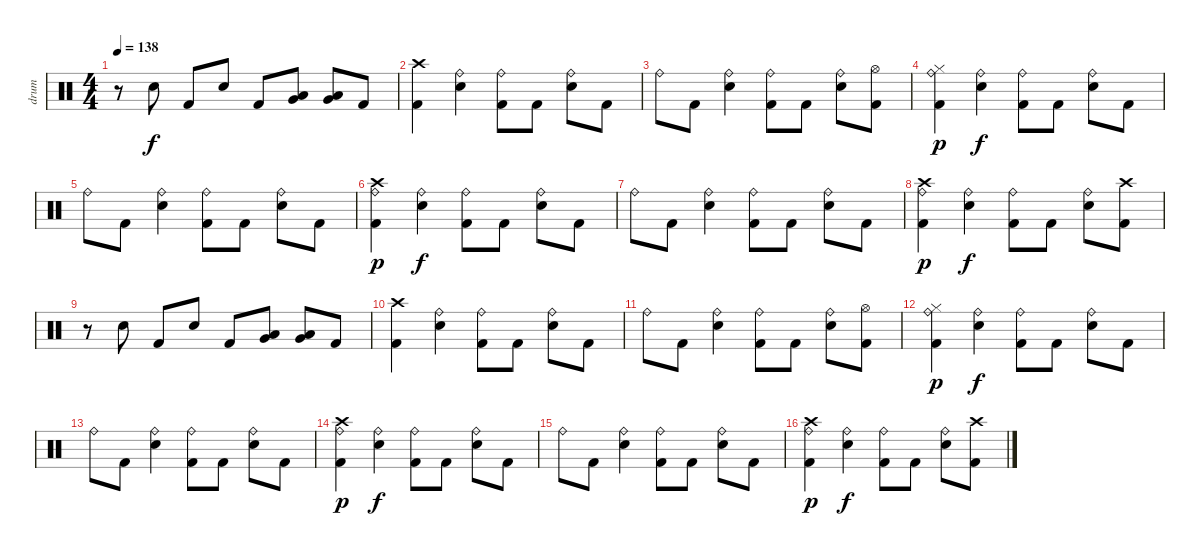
\track ("drum" "drum") {instrument percussion}
\staff {score}
\articulation defaults
\ts (4 4)
\tempo 138
\clef neutral
\ks c
r.8{dy f} "Snare (hit) 2".8 "Kick (hit) 2".8 "Snare (hit) 2".8 "Kick (hit) 2".8 ("Low Tom (hit)" "Very Low Tom (hit)").8 ("Low Tom (hit)" "Very Low Tom (hit)").8 "Kick (hit) 2".8 |
("Crash high (hit)" "Kick (hit) 2").4 ("Ride (bell)" "Snare (hit) 2").4 ("Ride (bell)" "Kick (hit) 2").8 "Kick (hit) 2".8 ("Ride (bell)" "Snare (hit) 2").8 "Kick (hit) 2".8 |
"Ride (bell)".8 "Kick (hit) 2".8 ("Ride (bell)" "Snare (hit) 2").4 ("Ride (bell)" "Kick (hit) 2").8 "Kick (hit) 2".8 ("Ride (bell)" "Snare (hit) 2").8 ("Hi-Hat (open)" "Kick (hit) 2").8 |
("Ride (bell)" "Hi-Hat (closed)" "Kick (hit) 2").4{dy p} ("Ride (bell)" "Snare (hit) 2").4{dy f} ("Ride (bell)" "Kick (hit) 2").8 "Kick (hit) 2".8 ("Ride (bell)" "Snare (hit) 2").8 "Kick (hit) 2".8 |
"Ride (bell)".8 "Kick (hit) 2".8 ("Ride (bell)" "Snare (hit) 2").4 ("Ride (bell)" "Kick (hit) 2").8 "Kick (hit) 2".8 ("Ride (bell)" "Snare (hit) 2").8 "Kick (hit) 2".8 |
("Crash high (hit)" "Ride (bell)" "Kick (hit) 2").4{dy p} ("Ride (bell)" "Snare (hit) 2").4{dy f} ("Ride (bell)" "Kick (hit) 2").8 "Kick (hit) 2".8 ("Ride (bell)" "Snare (hit) 2").8 "Kick (hit) 2".8 |
"Ride (bell)".8 "Kick (hit) 2".8 ("Ride (bell)" "Snare (hit) 2").4 ("Ride (bell)" "Kick (hit) 2").8 "Kick (hit) 2".8 ("Ride (bell)" "Snare (hit) 2").8 "Kick (hit) 2".8 |
("Crash high (hit)" "Ride (bell)" "Kick (hit) 2").4{dy p} ("Ride (bell)" "Snare (hit) 2").4{dy f} ("Ride (bell)" "Kick (hit) 2").8 "Kick (hit) 2".8 ("Ride (bell)" "Snare (hit) 2").8 ("Crash high (hit)" "Kick (hit) 2").8 |
r.8 "Snare (hit) 2".8 "Kick (hit) 2".8 "Snare (hit) 2".8 "Kick (hit) 2".8 ("Low Tom (hit)" "Very Low Tom (hit)").8 ("Low Tom (hit)" "Very Low Tom (hit)").8 "Kick (hit) 2".8 |
("Crash high (hit)" "Kick (hit) 2").4 ("Ride (bell)" "Snare (hit) 2").4 ("Ride (bell)" "Kick (hit) 2").8 "Kick (hit) 2".8 ("Ride (bell)" "Snare (hit) 2").8 "Kick (hit) 2".8 |
"Ride (bell)".8 "Kick (hit) 2".8 ("Ride (bell)" "Snare (hit) 2").4 ("Ride (bell)" "Kick (hit) 2").8 "Kick (hit) 2".8 ("Ride (bell)" "Snare (hit) 2").8 ("Hi-Hat (open)" "Kick (hit) 2").8 |
("Ride (bell)" "Hi-Hat (closed)" "Kick (hit) 2").4{dy p} ("Ride (bell)" "Snare (hit) 2").4{dy f} ("Ride (bell)" "Kick (hit) 2").8 "Kick (hit) 2".8 ("Ride (bell)" "Snare (hit) 2").8 "Kick (hit) 2".8 |
"Ride (bell)".8 "Kick (hit) 2".8 ("Ride (bell)" "Snare (hit) 2").4 ("Ride (bell)" "Kick (hit) 2").8 "Kick (hit) 2".8 ("Ride (bell)" "Snare (hit) 2").8 "Kick (hit) 2".8 |
("Crash high (hit)" "Ride (bell)" "Kick (hit) 2").4{dy p} ("Ride (bell)" "Snare (hit) 2").4{dy f} ("Ride (bell)" "Kick (hit) 2").8 "Kick (hit) 2".8 ("Ride (bell)" "Snare (hit) 2").8 "Kick (hit) 2".8 |
"Ride (bell)".8 "Kick (hit) 2".8 ("Ride (bell)" "Snare (hit) 2").4 ("Ride (bell)" "Kick (hit) 2").8 "Kick (hit) 2".8 ("Ride (bell)" "Snare (hit) 2").8 "Kick (hit) 2".8 |
("Crash high (hit)" "Ride (bell)" "Kick (hit) 2").4{dy p} ("Ride (bell)" "Snare (hit) 2").4{dy f} ("Ride (bell)" "Kick (hit) 2").8 "Kick (hit) 2".8 ("Ride (bell)" "Snare (hit) 2").8 ("Crash high (hit)" "Kick (hit) 2").8
